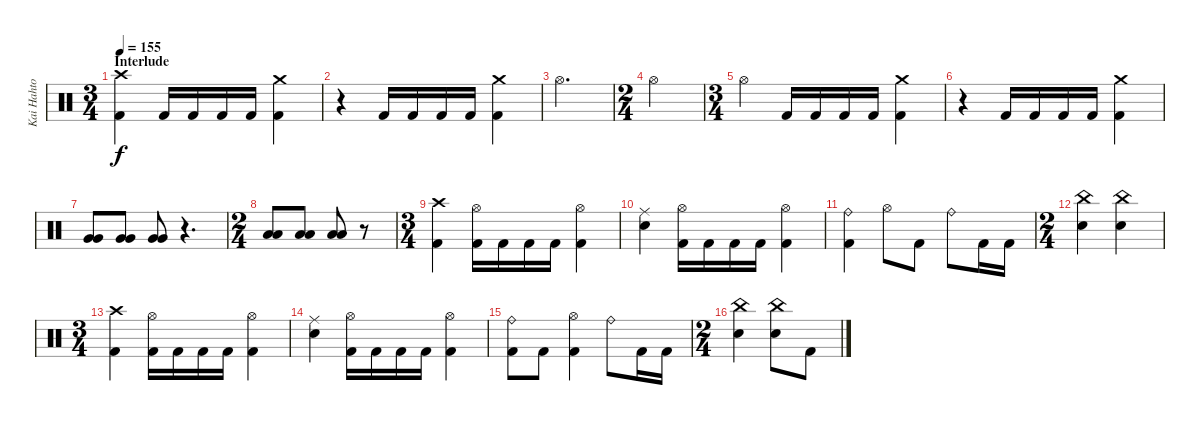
\track ("Kai Hahto" "Kai Hahto") {instrument percussion}
\staff {score}
\articulation defaults
\ts (3 4)
\section ("" "Interlude")
\tempo 155
\clef neutral
\ks c
("Crash high (hit)" "Kick (hit) 2").4{dy f} "Kick (hit) 2".16 "Kick (hit) 2".16 "Kick (hit) 2".16 "Kick (hit) 2".16 ("Crash medium (hit)" "Kick (hit) 2").4 |
r.4 "Kick (hit) 2".16 "Kick (hit) 2".16 "Kick (hit) 2".16 "Kick (hit) 2".16 ("Crash medium (hit)" "Kick (hit) 2").4 |
"Hi-Hat (open)".2{d} |
\ts (2 4)
"Hi-Hat (open)".2 |
\ts (3 4)
"Hi-Hat (open)".4 "Kick (hit) 2".16 "Kick (hit) 2".16 "Kick (hit) 2".16 "Kick (hit) 2".16 ("Crash medium (hit)" "Kick (hit) 2").4 |
r.4 "Kick (hit) 2".16 "Kick (hit) 2".16 "Kick (hit) 2".16 "Kick (hit) 2".16 ("Crash medium (hit)" "Kick (hit) 2").4 |
("Very Low Tom (hit)" "Very Low Tom (hit)").8 ("Very Low Tom (hit)" "Very Low Tom (hit)").8 ("Very Low Tom (hit)" "Very Low Tom (hit)").8 r.4{d} |
\ts (2 4)
("Low Tom (hit)" "Low Tom (hit)").8 ("Low Tom (hit)" "Low Tom (hit)").8 ("Low Tom (hit)" "Low Tom (hit)").8 r.8 |
\ts (3 4)
("Crash high (hit)" "Kick (hit) 2").4 ("Hi-Hat (open)" "Kick (hit) 2").16 "Kick (hit) 2".16 "Kick (hit) 2".16 "Kick (hit) 2".16 ("Hi-Hat (open)" "Kick (hit) 2").4 |
("Ride (middle)" "Electric Snare (hit)").4 ("Hi-Hat (open)" "Kick (hit) 2").16 "Kick (hit) 2".16 "Kick (hit) 2".16 "Kick (hit) 2".16 ("Hi-Hat (open)" "Kick (hit) 2").4 |
("Ride (bell)" "Kick (hit) 2").4 "Hi-Hat (open)".8 "Kick (hit) 2".8 "Ride (bell)".8 "Kick (hit) 2".16 "Kick (hit) 2".16 |
\ts (2 4)
("China (hit)" "Electric Snare (hit)").4 ("China (hit)" "Electric Snare (hit)").4 |
\ts (3 4)
("Crash high (hit)" "Kick (hit) 2").4 ("Hi-Hat (open)" "Kick (hit) 2").16 "Kick (hit) 2".16 "Kick (hit) 2".16 "Kick (hit) 2".16 ("Hi-Hat (open)" "Kick (hit) 2").4 |
("Ride (middle)" "Electric Snare (hit)").4 ("Hi-Hat (open)" "Kick (hit) 2").16 "Kick (hit) 2".16 "Kick (hit) 2".16 "Kick (hit) 2".16 ("Hi-Hat (open)" "Kick (hit) 2").4 |
("Ride (bell)" "Kick (hit) 2").8 "Kick (hit) 2".8 ("Hi-Hat (open)" "Kick (hit) 2").4 "Ride (bell)".8 "Kick (hit) 2".16 "Kick (hit) 2".16 |
\ts (2 4)
("China (hit)" "Electric Snare (hit)").4 ("China (hit)" "Electric Snare (hit)").8 "Kick (hit) 2".8
